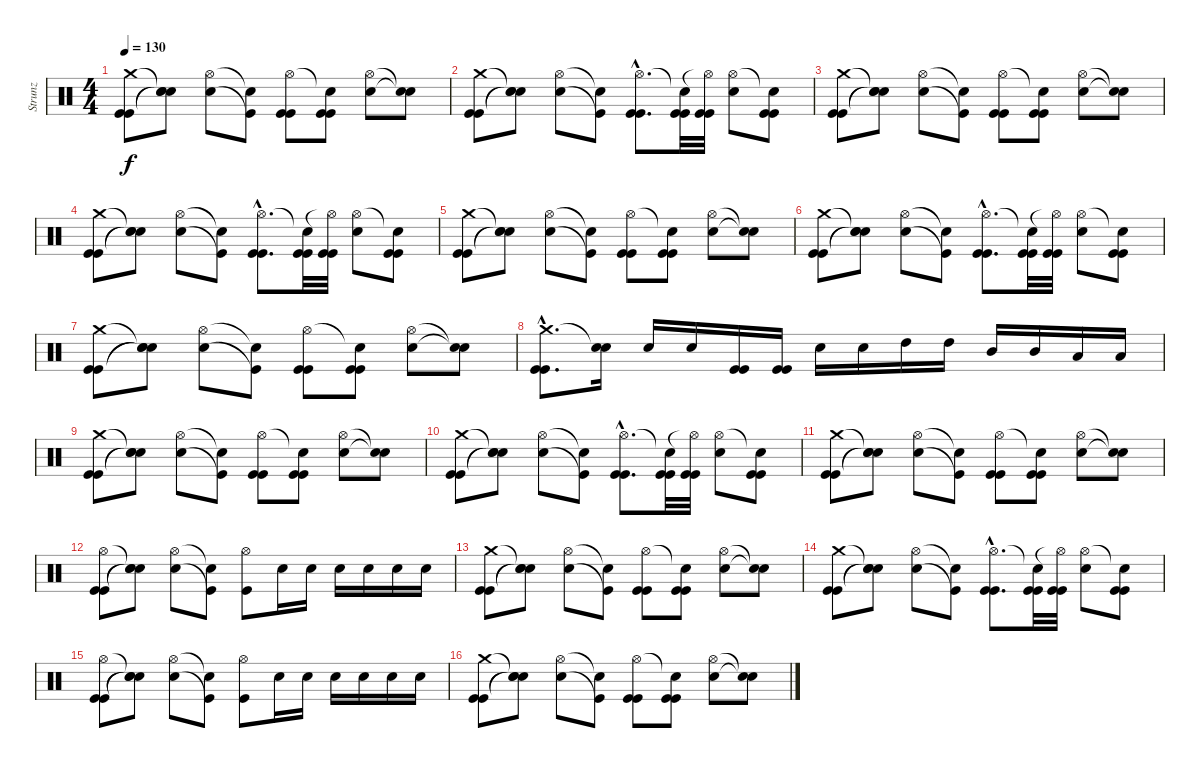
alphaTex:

\track ("Strunz" "Strunz") {instrument percussion}
\staff {score}
\articulation defaults
\ts (4 4)
\tempo 130
\clef neutral
\ks c
("Crash medium (hit)" "Kick (hit)" "Kick (hit)").8{dy f} ("Snare (hit)"{t} "Electric Snare (hit)"{t} "Snare (hit)"{t}).8 ("Hi-Hat (open)" "Electric Snare (hit)").8 ("Snare (hit)"{t} "Kick (hit)"{t}).8 ("Hi-Hat (open)" "Kick (hit)" "Kick (hit)").8 ("Snare (hit)"{t} "Kick (hit)" "Kick (hit)").8 ("Hi-Hat (open)" "Electric Snare (hit)").8 ("Snare (hit)"{t} "Snare (hit)"{t}).8 |
("Crash medium (hit)" "Kick (hit)" "Kick (hit)").8 ("Snare (hit)"{t} "Electric Snare (hit)"{t} "Snare (hit)"{t}).8 ("Hi-Hat (open)" "Electric Snare (hit)").8 ("Snare (hit)"{t} "Kick (hit)"{t}).8 ("Hi-Hat (open)"{hac} "Kick (hit)"{hac} "Kick (hit)"{hac}).8{d} ("Snare (hit)"{t} "Kick (hit)" "Kick (hit)").32 ("Hi-Hat (open)"{t} "Kick (hit)" "Kick (hit)").32 ("Hi-Hat (open)" "Electric Snare (hit)").8 ("Snare (hit)"{t} "Kick (hit)" "Kick (hit)").8 |
("Crash medium (hit)" "Kick (hit)" "Kick (hit)").8 ("Snare (hit)"{t} "Electric Snare (hit)"{t} "Snare (hit)"{t}).8 ("Hi-Hat (open)" "Electric Snare (hit)").8 ("Snare (hit)"{t} "Kick (hit)"{t}).8 ("Hi-Hat (open)" "Kick (hit)" "Kick (hit)").8 ("Snare (hit)"{t} "Kick (hit)" "Kick (hit)").8 ("Hi-Hat (open)" "Electric Snare (hit)").8 ("Snare (hit)"{t} "Snare (hit)"{t}).8 |
("Crash medium (hit)" "Kick (hit)" "Kick (hit)").8 ("Snare (hit)"{t} "Electric Snare (hit)"{t} "Snare (hit)"{t}).8 ("Hi-Hat (open)" "Electric Snare (hit)").8 ("Snare (hit)"{t} "Kick (hit)"{t}).8 ("Hi-Hat (open)"{hac} "Kick (hit)"{hac} "Kick (hit)"{hac}).8{d} ("Snare (hit)"{t} "Kick (hit)" "Kick (hit)").32 ("Hi-Hat (open)"{t} "Kick (hit)" "Kick (hit)").32 ("Hi-Hat (open)" "Electric Snare (hit)").8 ("Snare (hit)"{t} "Kick (hit)" "Kick (hit)").8 |
("Crash medium (hit)" "Kick (hit)" "Kick (hit)").8 ("Snare (hit)"{t} "Electric Snare (hit)"{t} "Snare (hit)"{t}).8 ("Hi-Hat (open)" "Electric Snare (hit)").8 ("Snare (hit)"{t} "Kick (hit)"{t}).8 ("Hi-Hat (open)" "Kick (hit)" "Kick (hit)").8 ("Snare (hit)"{t} "Kick (hit)" "Kick (hit)").8 ("Hi-Hat (open)" "Electric Snare (hit)").8 ("Snare (hit)"{t} "Snare (hit)"{t}).8 |
("Crash medium (hit)" "Kick (hit)" "Kick (hit)").8 ("Snare (hit)"{t} "Electric Snare (hit)"{t} "Snare (hit)"{t}).8 ("Hi-Hat (open)" "Electric Snare (hit)").8 ("Snare (hit)"{t} "Kick (hit)"{t}).8 ("Hi-Hat (open)"{hac} "Kick (hit)"{hac} "Kick (hit)"{hac}).8{d} ("Snare (hit)"{t} "Kick (hit)" "Kick (hit)").32 ("Hi-Hat (open)"{t} "Kick (hit)" "Kick (hit)").32 ("Hi-Hat (open)" "Electric Snare (hit)").8 ("Snare (hit)"{t} "Kick (hit)" "Kick (hit)").8 |
("Crash medium (hit)" "Kick (hit)" "Kick (hit)").8 ("Snare (hit)"{t} "Electric Snare (hit)"{t} "Snare (hit)"{t}).8 ("Hi-Hat (open)" "Electric Snare (hit)").8 ("Snare (hit)"{t} "Kick (hit)"{t}).8 ("Hi-Hat (open)" "Kick (hit)" "Kick (hit)").8 ("Snare (hit)"{t} "Kick (hit)" "Kick (hit)").8 ("Hi-Hat (open)" "Electric Snare (hit)").8 ("Snare (hit)"{t} "Snare (hit)"{t}).8 |
("Crash medium (hit)"{hac} "Kick (hit)"{hac} "Kick (hit)"{hac}).8{d} ("Snare (hit)"{t} "Electric Snare (hit)").16 "Electric Snare (hit)".16 "Electric Snare (hit)".16 ("Kick (hit)" "Kick (hit)").16 ("Kick (hit)" "Kick (hit)").16 "Electric Snare (hit)".16 "Electric Snare (hit)".16 "High Tom (hit)".16 "High Tom (hit)".16 "Mid Tom (hit)".16 "Mid Tom (hit)".16 "Low Tom (hit)".16 "Low Tom (hit)".16 |
("Crash medium (hit)" "Kick (hit)" "Kick (hit)").8 ("Snare (hit)"{t} "Electric Snare (hit)"{t} "Snare (hit)"{t}).8 ("Hi-Hat (open)" "Electric Snare (hit)").8 ("Snare (hit)"{t} "Kick (hit)"{t}).8 ("Hi-Hat (open)" "Kick (hit)" "Kick (hit)").8 ("Snare (hit)"{t} "Kick (hit)" "Kick (hit)").8 ("Hi-Hat (open)" "Electric Snare (hit)").8 ("Snare (hit)"{t} "Snare (hit)"{t}).8 |
("Crash medium (hit)" "Kick (hit)" "Kick (hit)").8 ("Snare (hit)"{t} "Electric Snare (hit)"{t} "Snare (hit)"{t}).8 ("Hi-Hat (open)" "Electric Snare (hit)").8 ("Snare (hit)"{t} "Kick (hit)"{t}).8 ("Hi-Hat (open)"{hac} "Kick (hit)"{hac} "Kick (hit)"{hac}).8{d} ("Snare (hit)"{t} "Kick (hit)" "Kick (hit)").32 ("Hi-Hat (open)"{t} "Kick (hit)" "Kick (hit)").32 ("Hi-Hat (open)" "Electric Snare (hit)").8 ("Snare (hit)"{t} "Kick (hit)" "Kick (hit)").8 |
("Crash medium (hit)" "Kick (hit)" "Kick (hit)").8 ("Snare (hit)"{t} "Electric Snare (hit)"{t} "Snare (hit)"{t}).8 ("Hi-Hat (open)" "Electric Snare (hit)").8 ("Snare (hit)"{t} "Kick (hit)"{t}).8 ("Hi-Hat (open)" "Kick (hit)" "Kick (hit)").8 ("Snare (hit)"{t} "Kick (hit)" "Kick (hit)").8 ("Hi-Hat (open)" "Electric Snare (hit)").8 ("Snare (hit)"{t} "Snare (hit)"{t}).8 |
("Hi-Hat (open)" "Kick (hit)" "Kick (hit)").8 ("Snare (hit)"{t} "Snare (hit)"{t} "Snare (hit)"{t}).8 ("Hi-Hat (open)" "Electric Snare (hit)").8 ("Snare (hit)"{t} "Kick (hit)"{t}).8 ("Hi-Hat (open)" "Kick (hit)").8 "Electric Snare (hit)".16 "Electric Snare (hit)".16 "Electric Snare (hit)".16 "Electric Snare (hit)".16 "Electric Snare (hit)".16 "Electric Snare (hit)".16 |
("Crash medium (hit)" "Kick (hit)" "Kick (hit)").8 ("Snare (hit)"{t} "Electric Snare (hit)"{t} "Snare (hit)"{t}).8 ("Hi-Hat (open)" "Electric Snare (hit)").8 ("Snare (hit)"{t} "Kick (hit)"{t}).8 ("Hi-Hat (open)" "Kick (hit)" "Kick (hit)").8 ("Snare (hit)"{t} "Kick (hit)" "Kick (hit)").8 ("Hi-Hat (open)" "Electric Snare (hit)").8 ("Snare (hit)"{t} "Snare (hit)"{t}).8 |
("Crash medium (hit)" "Kick (hit)" "Kick (hit)").8 ("Snare (hit)"{t} "Electric Snare (hit)"{t} "Snare (hit)"{t}).8 ("Hi-Hat (open)" "Electric Snare (hit)").8 ("Snare (hit)"{t} "Kick (hit)"{t}).8 ("Hi-Hat (open)"{hac} "Kick (hit)"{hac} "Kick (hit)"{hac}).8{d} ("Snare (hit)"{t} "Kick (hit)" "Kick (hit)").32 ("Hi-Hat (open)"{t} "Kick (hit)" "Kick (hit)").32 ("Hi-Hat (open)" "Electric Snare (hit)").8 ("Snare (hit)"{t} "Kick (hit)" "Kick (hit)").8 |
("Hi-Hat (open)" "Kick (hit)" "Kick (hit)").8 ("Snare (hit)"{t} "Snare (hit)"{t} "Snare (hit)"{t}).8 ("Hi-Hat (open)" "Electric Snare (hit)").8 ("Snare (hit)"{t} "Kick (hit)"{t}).8 ("Hi-Hat (open)" "Kick (hit)").8 "Electric Snare (hit)".16 "Electric Snare (hit)".16 "Electric Snare (hit)".16 "Electric Snare (hit)".16 "Electric Snare (hit)".16 "Electric Snare (hit)".16 |
("Crash medium (hit)" "Kick (hit)" "Kick (hit)").8 ("Snare (hit)"{t} "Electric Snare (hit)"{t} "Snare (hit)"{t}).8 ("Hi-Hat (open)" "Electric Snare (hit)").8 ("Snare (hit)"{t} "Kick (hit)"{t}).8 ("Hi-Hat (open)" "Kick (hit)" "Kick (hit)").8 ("Snare (hit)"{t} "Kick (hit)" "Kick (hit)").8 ("Hi-Hat (open)" "Electric Snare (hit)").8 ("Snare (hit)"{t} "Snare (hit)"{t}).8
